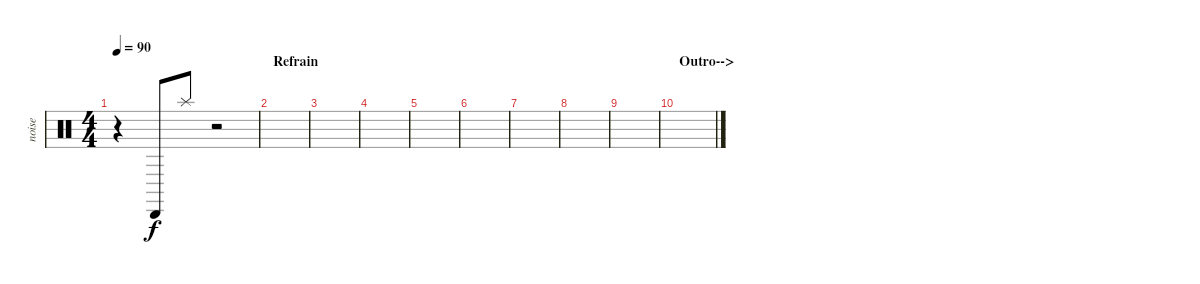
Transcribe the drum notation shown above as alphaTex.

\track ("noise" "noise") {instrument percussion}
\staff {score}
\articulation defaults
\ts (4 4)
\tempo 90
\clef neutral
\ks c
r.4{dy f} "Cabasa (hit)".8{volume 9} "Splash (hit)".8 r.2 |
\section ("" "Refrain")
|
|
|
|
|
|
|
|
\section ("" "Outro-->")
